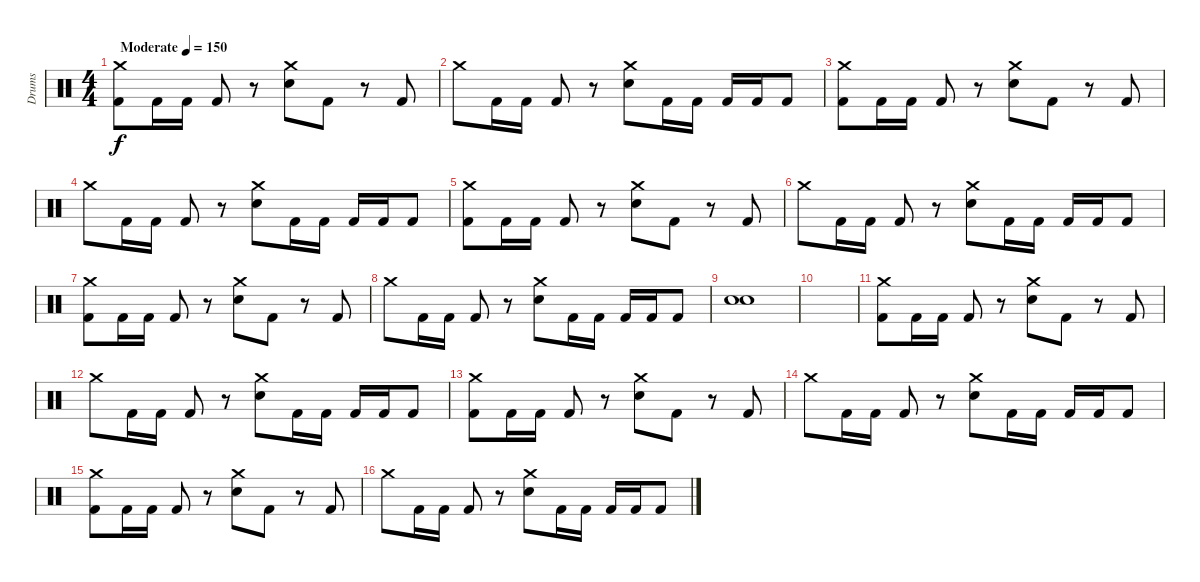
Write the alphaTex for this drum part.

\track ("Drums" "Drums") {instrument percussion}
\staff {score}
\articulation defaults
\ts (4 4)
\tempo (150 "Moderate")
\clef neutral
\ks c
("Crash medium (hit)" "Kick (hit) 2").8{dy f} "Kick (hit) 2".16 "Kick (hit) 2".16 "Kick (hit) 2".8 r.8 ("Crash medium (hit)" "Electric Snare (hit)").8 "Kick (hit) 2".8 r.8 "Kick (hit) 2".8 |
"Crash medium (hit)".8 "Kick (hit) 2".16 "Kick (hit) 2".16 "Kick (hit) 2".8 r.8 ("Crash medium (hit)" "Electric Snare (hit)").8 "Kick (hit) 2".16 "Kick (hit) 2".16 "Kick (hit) 2".16 "Kick (hit) 2".16 "Kick (hit) 2".8 |
("Crash medium (hit)" "Kick (hit) 2").8 "Kick (hit) 2".16 "Kick (hit) 2".16 "Kick (hit) 2".8 r.8 ("Crash medium (hit)" "Electric Snare (hit)").8 "Kick (hit) 2".8 r.8 "Kick (hit) 2".8 |
"Crash medium (hit)".8 "Kick (hit) 2".16 "Kick (hit) 2".16 "Kick (hit) 2".8 r.8 ("Crash medium (hit)" "Electric Snare (hit)").8 "Kick (hit) 2".16 "Kick (hit) 2".16 "Kick (hit) 2".16 "Kick (hit) 2".16 "Kick (hit) 2".8 |
("Crash medium (hit)" "Kick (hit) 2").8 "Kick (hit) 2".16 "Kick (hit) 2".16 "Kick (hit) 2".8 r.8 ("Crash medium (hit)" "Electric Snare (hit)").8 "Kick (hit) 2".8 r.8 "Kick (hit) 2".8 |
"Crash medium (hit)".8 "Kick (hit) 2".16 "Kick (hit) 2".16 "Kick (hit) 2".8 r.8 ("Crash medium (hit)" "Electric Snare (hit)").8 "Kick (hit) 2".16 "Kick (hit) 2".16 "Kick (hit) 2".16 "Kick (hit) 2".16 "Kick (hit) 2".8 |
("Crash medium (hit)" "Kick (hit) 2").8 "Kick (hit) 2".16 "Kick (hit) 2".16 "Kick (hit) 2".8 r.8 ("Crash medium (hit)" "Electric Snare (hit)").8 "Kick (hit) 2".8 r.8 "Kick (hit) 2".8 |
"Crash medium (hit)".8 "Kick (hit) 2".16 "Kick (hit) 2".16 "Kick (hit) 2".8 r.8 ("Crash medium (hit)" "Electric Snare (hit)").8 "Kick (hit) 2".16 "Kick (hit) 2".16 "Kick (hit) 2".16 "Kick (hit) 2".16 "Kick (hit) 2".8 |
("Electric Snare (hit)" "Electric Snare (hit)").1 |
|
("Crash medium (hit)" "Kick (hit) 2").8 "Kick (hit) 2".16 "Kick (hit) 2".16 "Kick (hit) 2".8 r.8 ("Crash medium (hit)" "Electric Snare (hit)").8 "Kick (hit) 2".8 r.8 "Kick (hit) 2".8 |
"Crash medium (hit)".8 "Kick (hit) 2".16 "Kick (hit) 2".16 "Kick (hit) 2".8 r.8 ("Crash medium (hit)" "Electric Snare (hit)").8 "Kick (hit) 2".16 "Kick (hit) 2".16 "Kick (hit) 2".16 "Kick (hit) 2".16 "Kick (hit) 2".8 |
("Crash medium (hit)" "Kick (hit) 2").8 "Kick (hit) 2".16 "Kick (hit) 2".16 "Kick (hit) 2".8 r.8 ("Crash medium (hit)" "Electric Snare (hit)").8 "Kick (hit) 2".8 r.8 "Kick (hit) 2".8 |
"Crash medium (hit)".8 "Kick (hit) 2".16 "Kick (hit) 2".16 "Kick (hit) 2".8 r.8 ("Crash medium (hit)" "Electric Snare (hit)").8 "Kick (hit) 2".16 "Kick (hit) 2".16 "Kick (hit) 2".16 "Kick (hit) 2".16 "Kick (hit) 2".8 |
("Crash medium (hit)" "Kick (hit) 2").8 "Kick (hit) 2".16 "Kick (hit) 2".16 "Kick (hit) 2".8 r.8 ("Crash medium (hit)" "Electric Snare (hit)").8 "Kick (hit) 2".8 r.8 "Kick (hit) 2".8 |
"Crash medium (hit)".8 "Kick (hit) 2".16 "Kick (hit) 2".16 "Kick (hit) 2".8 r.8 ("Crash medium (hit)" "Electric Snare (hit)").8 "Kick (hit) 2".16 "Kick (hit) 2".16 "Kick (hit) 2".16 "Kick (hit) 2".16 "Kick (hit) 2".8
